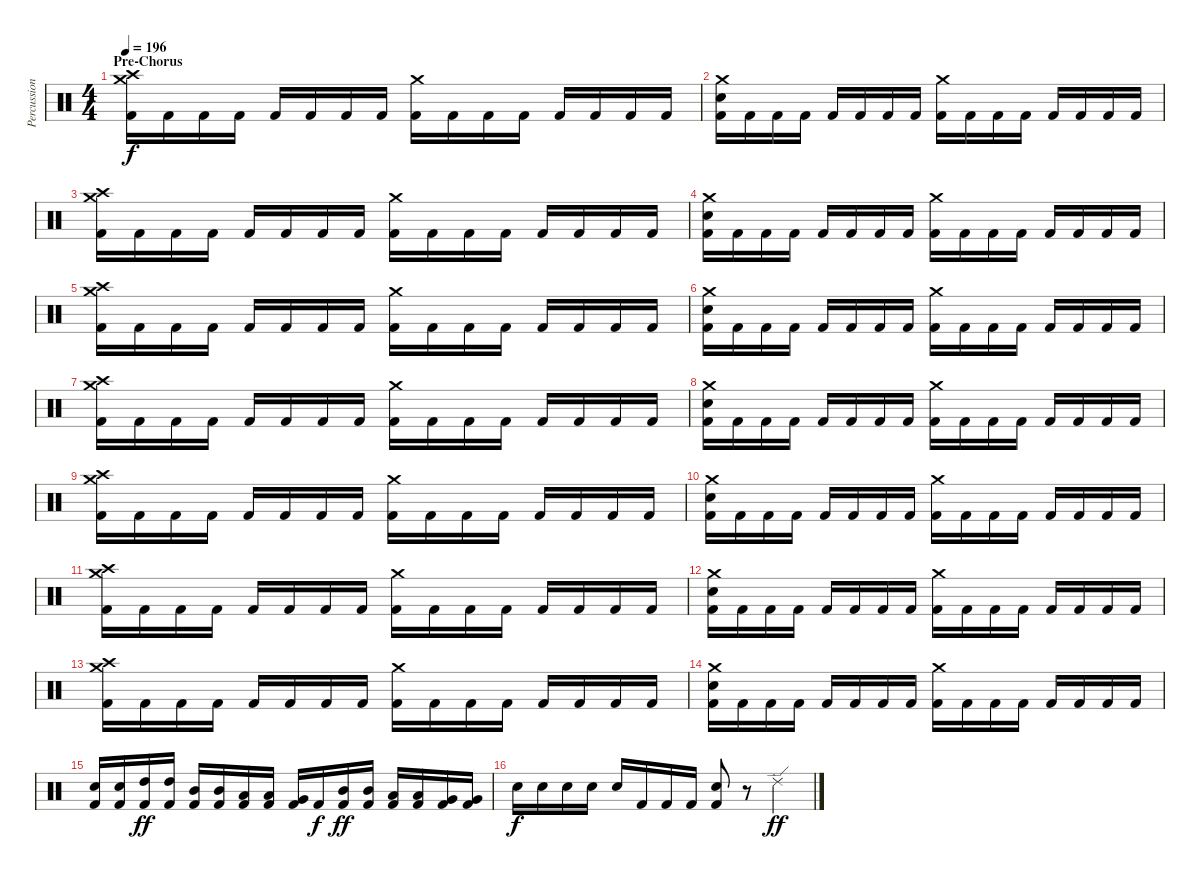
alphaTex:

\track ("Percussions" "Percussion") {instrument percussion}
\staff {score}
\articulation defaults
\ts (4 4)
\section ("" "Pre-Chorus")
\tempo 196
\clef neutral
\ks c
("Crash high (hit)" "Crash medium (hit)" "Kick (hit) 2").16{dy f} "Kick (hit) 2".16 "Kick (hit) 2".16 "Kick (hit) 2".16 "Kick (hit) 2".16 "Kick (hit) 2".16 "Kick (hit) 2".16 "Kick (hit) 2".16 ("Crash medium (hit)" "Kick (hit) 2").16 "Kick (hit) 2".16 "Kick (hit) 2".16 "Kick (hit) 2".16 "Kick (hit) 2".16 "Kick (hit) 2".16 "Kick (hit) 2".16 "Kick (hit) 2".16 |
("Crash medium (hit)" "Electric Snare (hit)" "Kick (hit) 2").16 "Kick (hit) 2".16 "Kick (hit) 2".16 "Kick (hit) 2".16 "Kick (hit) 2".16 "Kick (hit) 2".16 "Kick (hit) 2".16 "Kick (hit) 2".16 ("Crash medium (hit)" "Kick (hit) 2").16 "Kick (hit) 2".16 "Kick (hit) 2".16 "Kick (hit) 2".16 "Kick (hit) 2".16 "Kick (hit) 2".16 "Kick (hit) 2".16 "Kick (hit) 2".16 |
("Crash high (hit)" "Crash medium (hit)" "Kick (hit) 2").16 "Kick (hit) 2".16 "Kick (hit) 2".16 "Kick (hit) 2".16 "Kick (hit) 2".16 "Kick (hit) 2".16 "Kick (hit) 2".16 "Kick (hit) 2".16 ("Crash medium (hit)" "Kick (hit) 2").16 "Kick (hit) 2".16 "Kick (hit) 2".16 "Kick (hit) 2".16 "Kick (hit) 2".16 "Kick (hit) 2".16 "Kick (hit) 2".16 "Kick (hit) 2".16 |
("Crash medium (hit)" "Electric Snare (hit)" "Kick (hit) 2").16 "Kick (hit) 2".16 "Kick (hit) 2".16 "Kick (hit) 2".16 "Kick (hit) 2".16 "Kick (hit) 2".16 "Kick (hit) 2".16 "Kick (hit) 2".16 ("Crash medium (hit)" "Kick (hit) 2").16 "Kick (hit) 2".16 "Kick (hit) 2".16 "Kick (hit) 2".16 "Kick (hit) 2".16 "Kick (hit) 2".16 "Kick (hit) 2".16 "Kick (hit) 2".16 |
("Crash high (hit)" "Crash medium (hit)" "Kick (hit) 2").16 "Kick (hit) 2".16 "Kick (hit) 2".16 "Kick (hit) 2".16 "Kick (hit) 2".16 "Kick (hit) 2".16 "Kick (hit) 2".16 "Kick (hit) 2".16 ("Crash medium (hit)" "Kick (hit) 2").16 "Kick (hit) 2".16 "Kick (hit) 2".16 "Kick (hit) 2".16 "Kick (hit) 2".16 "Kick (hit) 2".16 "Kick (hit) 2".16 "Kick (hit) 2".16 |
("Crash medium (hit)" "Electric Snare (hit)" "Kick (hit) 2").16 "Kick (hit) 2".16 "Kick (hit) 2".16 "Kick (hit) 2".16 "Kick (hit) 2".16 "Kick (hit) 2".16 "Kick (hit) 2".16 "Kick (hit) 2".16 ("Crash medium (hit)" "Kick (hit) 2").16 "Kick (hit) 2".16 "Kick (hit) 2".16 "Kick (hit) 2".16 "Kick (hit) 2".16 "Kick (hit) 2".16 "Kick (hit) 2".16 "Kick (hit) 2".16 |
("Crash high (hit)" "Crash medium (hit)" "Kick (hit) 2").16 "Kick (hit) 2".16 "Kick (hit) 2".16 "Kick (hit) 2".16 "Kick (hit) 2".16 "Kick (hit) 2".16 "Kick (hit) 2".16 "Kick (hit) 2".16 ("Crash medium (hit)" "Kick (hit) 2").16 "Kick (hit) 2".16 "Kick (hit) 2".16 "Kick (hit) 2".16 "Kick (hit) 2".16 "Kick (hit) 2".16 "Kick (hit) 2".16 "Kick (hit) 2".16 |
("Crash medium (hit)" "Electric Snare (hit)" "Kick (hit) 2").16 "Kick (hit) 2".16 "Kick (hit) 2".16 "Kick (hit) 2".16 "Kick (hit) 2".16 "Kick (hit) 2".16 "Kick (hit) 2".16 "Kick (hit) 2".16 ("Crash medium (hit)" "Kick (hit) 2").16 "Kick (hit) 2".16 "Kick (hit) 2".16 "Kick (hit) 2".16 "Kick (hit) 2".16 "Kick (hit) 2".16 "Kick (hit) 2".16 "Kick (hit) 2".16 |
("Crash high (hit)" "Crash medium (hit)" "Kick (hit) 2").16 "Kick (hit) 2".16 "Kick (hit) 2".16 "Kick (hit) 2".16 "Kick (hit) 2".16 "Kick (hit) 2".16 "Kick (hit) 2".16 "Kick (hit) 2".16 ("Crash medium (hit)" "Kick (hit) 2").16 "Kick (hit) 2".16 "Kick (hit) 2".16 "Kick (hit) 2".16 "Kick (hit) 2".16 "Kick (hit) 2".16 "Kick (hit) 2".16 "Kick (hit) 2".16 |
("Crash medium (hit)" "Electric Snare (hit)" "Kick (hit) 2").16 "Kick (hit) 2".16 "Kick (hit) 2".16 "Kick (hit) 2".16 "Kick (hit) 2".16 "Kick (hit) 2".16 "Kick (hit) 2".16 "Kick (hit) 2".16 ("Crash medium (hit)" "Kick (hit) 2").16 "Kick (hit) 2".16 "Kick (hit) 2".16 "Kick (hit) 2".16 "Kick (hit) 2".16 "Kick (hit) 2".16 "Kick (hit) 2".16 "Kick (hit) 2".16 |
("Crash high (hit)" "Crash medium (hit)" "Kick (hit) 2").16 "Kick (hit) 2".16 "Kick (hit) 2".16 "Kick (hit) 2".16 "Kick (hit) 2".16 "Kick (hit) 2".16 "Kick (hit) 2".16 "Kick (hit) 2".16 ("Crash medium (hit)" "Kick (hit) 2").16 "Kick (hit) 2".16 "Kick (hit) 2".16 "Kick (hit) 2".16 "Kick (hit) 2".16 "Kick (hit) 2".16 "Kick (hit) 2".16 "Kick (hit) 2".16 |
("Crash medium (hit)" "Electric Snare (hit)" "Kick (hit) 2").16 "Kick (hit) 2".16 "Kick (hit) 2".16 "Kick (hit) 2".16 "Kick (hit) 2".16 "Kick (hit) 2".16 "Kick (hit) 2".16 "Kick (hit) 2".16 ("Crash medium (hit)" "Kick (hit) 2").16 "Kick (hit) 2".16 "Kick (hit) 2".16 "Kick (hit) 2".16 "Kick (hit) 2".16 "Kick (hit) 2".16 "Kick (hit) 2".16 "Kick (hit) 2".16 |
("Crash high (hit)" "Crash medium (hit)" "Kick (hit) 2").16 "Kick (hit) 2".16 "Kick (hit) 2".16 "Kick (hit) 2".16 "Kick (hit) 2".16 "Kick (hit) 2".16 "Kick (hit) 2".16 "Kick (hit) 2".16 ("Crash medium (hit)" "Kick (hit) 2").16 "Kick (hit) 2".16 "Kick (hit) 2".16 "Kick (hit) 2".16 "Kick (hit) 2".16 "Kick (hit) 2".16 "Kick (hit) 2".16 "Kick (hit) 2".16 |
("Crash medium (hit)" "Electric Snare (hit)" "Kick (hit) 2").16 "Kick (hit) 2".16 "Kick (hit) 2".16 "Kick (hit) 2".16 "Kick (hit) 2".16 "Kick (hit) 2".16 "Kick (hit) 2".16 "Kick (hit) 2".16 ("Crash medium (hit)" "Kick (hit) 2").16 "Kick (hit) 2".16 "Kick (hit) 2".16 "Kick (hit) 2".16 "Kick (hit) 2".16 "Kick (hit) 2".16 "Kick (hit) 2".16 "Kick (hit) 2".16 |
("Electric Snare (hit)" "Kick (hit) 2").16 ("Electric Snare (hit)" "Kick (hit) 2").16 ("High Tom (hit)" "Kick (hit) 2").16{dy ff} ("High Tom (hit)" "Kick (hit) 2").16 ("Mid Tom (hit)" "Kick (hit) 2").16 ("Mid Tom (hit)" "Kick (hit) 2").16 ("Low Tom (hit)" "Kick (hit) 2").16 ("Low Tom (hit)" "Kick (hit) 2").16 ("Very Low Tom (hit)" "Kick (hit) 2").16 "Kick (hit) 2".16{dy f} ("Mid Tom (hit)" "Kick (hit) 2").16{dy ff} ("Mid Tom (hit)" "Kick (hit) 2").16 ("Low Tom (hit)" "Kick (hit) 2").16 ("Low Tom (hit)" "Kick (hit) 2").16 ("Very Low Tom (hit)" "Kick (hit) 2").16 ("Very Low Tom (hit)" "Kick (hit) 2").16 |
"Electric Snare (hit)".16{dy f} "Electric Snare (hit)".16 "Electric Snare (hit)".16 "Electric Snare (hit)".16 "Electric Snare (hit)".16 "Kick (hit) 2".16 "Kick (hit) 2".16 "Kick (hit) 2".16 ("Electric Snare (hit)" "Kick (hit) 2").8 r.8 "Ride (edge) 2".4{dy ff}
